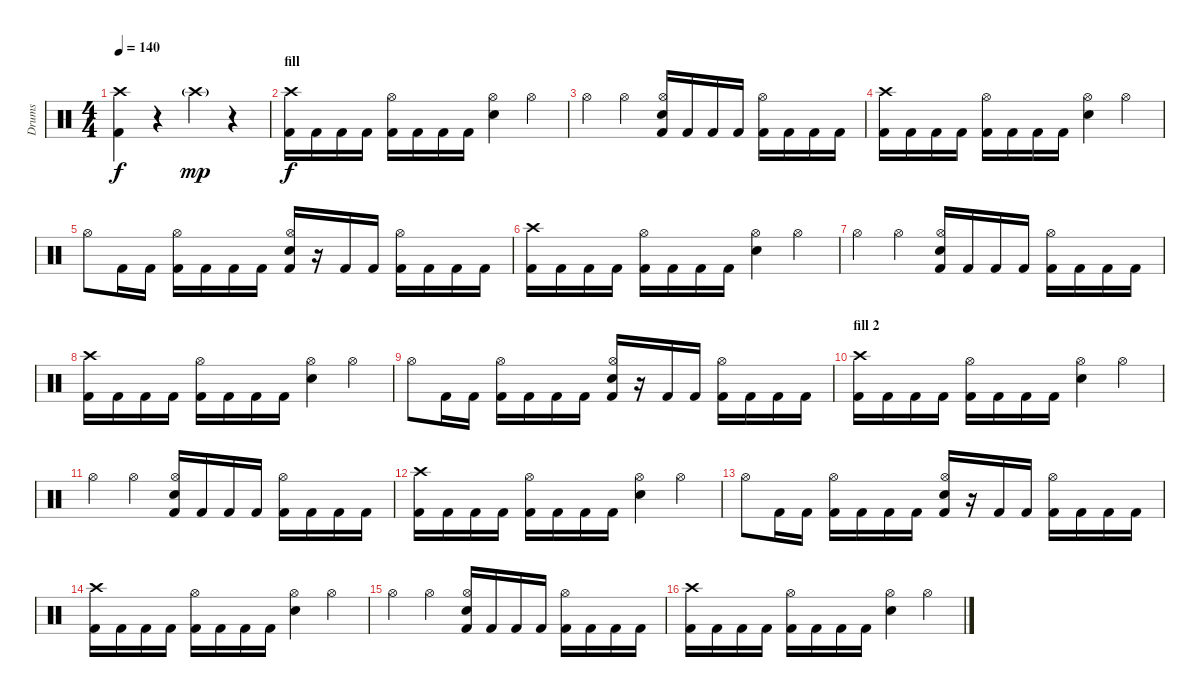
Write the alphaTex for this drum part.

\track ("Drums" "Drums") {instrument percussion}
\staff {score}
\articulation defaults
\ts (4 4)
\tempo 140
\clef neutral
\ks c
("Crash high (hit)" "Kick (hit) 2").4{dy f} r.4 "Crash high (hit)"{g}.4{dy mp} r.4 |
\section ("" "fill")
("Crash high (hit)" "Kick (hit) 2").16{dy f} "Kick (hit) 2".16 "Kick (hit) 2".16 "Kick (hit) 2".16 ("Hi-Hat (open)" "Kick (hit) 2").16 "Kick (hit) 2".16 "Kick (hit) 2".16 "Kick (hit) 2".16 ("Hi-Hat (open)" "Electric Snare (hit)").4 "Hi-Hat (open)".4 |
"Hi-Hat (open)".4 "Hi-Hat (open)".4 ("Hi-Hat (open)" "Snare (hit) 2" "Kick (hit) 2").16 "Kick (hit) 2".16 "Kick (hit) 2".16 "Kick (hit) 2".16 ("Hi-Hat (open)" "Kick (hit) 2").16 "Kick (hit) 2".16 "Kick (hit) 2".16 "Kick (hit) 2".16 |
("Crash high (hit)" "Kick (hit) 2").16 "Kick (hit) 2".16 "Kick (hit) 2".16 "Kick (hit) 2".16 ("Hi-Hat (open)" "Kick (hit) 2").16 "Kick (hit) 2".16 "Kick (hit) 2".16 "Kick (hit) 2".16 ("Hi-Hat (open)" "Snare (hit) 2").4 "Hi-Hat (open)".4 |
"Hi-Hat (open)".8 "Kick (hit) 2".16 "Kick (hit) 2".16 ("Hi-Hat (open)" "Kick (hit) 2").16 "Kick (hit) 2".16 "Kick (hit) 2".16 "Kick (hit) 2".16 ("Hi-Hat (open)" "Snare (hit) 2" "Kick (hit) 2").16 r.16 "Kick (hit) 2".16 "Kick (hit) 2".16 ("Hi-Hat (open)" "Kick (hit) 2").16 "Kick (hit) 2".16 "Kick (hit) 2".16 "Kick (hit) 2".16 |
("Crash high (hit)" "Kick (hit) 2").16 "Kick (hit) 2".16 "Kick (hit) 2".16 "Kick (hit) 2".16 ("Hi-Hat (open)" "Kick (hit) 2").16 "Kick (hit) 2".16 "Kick (hit) 2".16 "Kick (hit) 2".16 ("Hi-Hat (open)" "Snare (hit) 2").4 "Hi-Hat (open)".4 |
"Hi-Hat (open)".4 "Hi-Hat (open)".4 ("Hi-Hat (open)" "Snare (hit) 2" "Kick (hit) 2").16 "Kick (hit) 2".16 "Kick (hit) 2".16 "Kick (hit) 2".16 ("Hi-Hat (open)" "Kick (hit) 2").16 "Kick (hit) 2".16 "Kick (hit) 2".16 "Kick (hit) 2".16 |
("Crash high (hit)" "Kick (hit) 2").16 "Kick (hit) 2".16 "Kick (hit) 2".16 "Kick (hit) 2".16 ("Hi-Hat (open)" "Kick (hit) 2").16 "Kick (hit) 2".16 "Kick (hit) 2".16 "Kick (hit) 2".16 ("Hi-Hat (open)" "Snare (hit) 2").4 "Hi-Hat (open)".4 |
"Hi-Hat (open)".8 "Kick (hit) 2".16 "Kick (hit) 2".16 ("Hi-Hat (open)" "Kick (hit) 2").16 "Kick (hit) 2".16 "Kick (hit) 2".16 "Kick (hit) 2".16 ("Hi-Hat (open)" "Snare (hit) 2" "Kick (hit) 2").16 r.16 "Kick (hit) 2".16 "Kick (hit) 2".16 ("Hi-Hat (open)" "Kick (hit) 2").16 "Kick (hit) 2".16 "Kick (hit) 2".16 "Kick (hit) 2".16 |
\section ("" "fill 2")
("Crash high (hit)" "Kick (hit) 2").16 "Kick (hit) 2".16 "Kick (hit) 2".16 "Kick (hit) 2".16 ("Hi-Hat (open)" "Kick (hit) 2").16 "Kick (hit) 2".16 "Kick (hit) 2".16 "Kick (hit) 2".16 ("Hi-Hat (open)" "Snare (hit) 2").4 "Hi-Hat (open)".4 |
"Hi-Hat (open)".4 "Hi-Hat (open)".4 ("Hi-Hat (open)" "Snare (hit) 2" "Kick (hit) 2").16 "Kick (hit) 2".16 "Kick (hit) 2".16 "Kick (hit) 2".16 ("Hi-Hat (open)" "Kick (hit) 2").16 "Kick (hit) 2".16 "Kick (hit) 2".16 "Kick (hit) 2".16 |
("Crash high (hit)" "Kick (hit) 2").16 "Kick (hit) 2".16 "Kick (hit) 2".16 "Kick (hit) 2".16 ("Hi-Hat (open)" "Kick (hit) 2").16 "Kick (hit) 2".16 "Kick (hit) 2".16 "Kick (hit) 2".16 ("Hi-Hat (open)" "Snare (hit) 2").4 "Hi-Hat (open)".4 |
"Hi-Hat (open)".8 "Kick (hit) 2".16 "Kick (hit) 2".16 ("Hi-Hat (open)" "Kick (hit) 2").16 "Kick (hit) 2".16 "Kick (hit) 2".16 "Kick (hit) 2".16 ("Hi-Hat (open)" "Snare (hit) 2" "Kick (hit) 2").16 r.16 "Kick (hit) 2".16 "Kick (hit) 2".16 ("Hi-Hat (open)" "Kick (hit) 2").16 "Kick (hit) 2".16 "Kick (hit) 2".16 "Kick (hit) 2".16 |
("Crash high (hit)" "Kick (hit) 2").16 "Kick (hit) 2".16 "Kick (hit) 2".16 "Kick (hit) 2".16 ("Hi-Hat (open)" "Kick (hit) 2").16 "Kick (hit) 2".16 "Kick (hit) 2".16 "Kick (hit) 2".16 ("Hi-Hat (open)" "Snare (hit) 2").4 "Hi-Hat (open)".4 |
"Hi-Hat (open)".4 "Hi-Hat (open)".4 ("Hi-Hat (open)" "Snare (hit) 2" "Kick (hit) 2").16 "Kick (hit) 2".16 "Kick (hit) 2".16 "Kick (hit) 2".16 ("Hi-Hat (open)" "Kick (hit) 2").16 "Kick (hit) 2".16 "Kick (hit) 2".16 "Kick (hit) 2".16 |
("Crash high (hit)" "Kick (hit) 2").16 "Kick (hit) 2".16 "Kick (hit) 2".16 "Kick (hit) 2".16 ("Hi-Hat (open)" "Kick (hit) 2").16 "Kick (hit) 2".16 "Kick (hit) 2".16 "Kick (hit) 2".16 ("Hi-Hat (open)" "Snare (hit) 2").4 "Hi-Hat (open)".4
